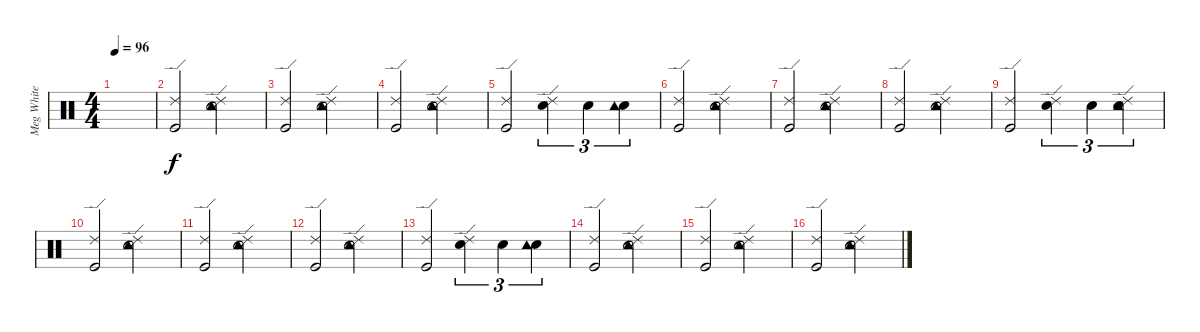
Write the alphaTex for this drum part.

\track ("Meg White" "Meg White") {instrument percussion}
\staff {score}
\articulation defaults
\ts (4 4)
\tempo 96
\clef neutral
\ks c
|
("Kick (hit)" "Ride (edge) 2").2 ("Electric Snare (hit)" "Tambourine (hit)" "Ride (edge) 2").2 |
("Kick (hit)" "Ride (edge) 2").2 ("Electric Snare (hit)" "Tambourine (hit)" "Ride (edge) 2").2 |
("Kick (hit)" "Ride (edge) 2").2 ("Electric Snare (hit)" "Tambourine (hit)" "Ride (edge) 2").2 |
("Kick (hit)" "Ride (edge) 2").2 ("Electric Snare (hit)" "Ride (edge) 2").4{tu (3 2)} "Electric Snare (hit)".4{tu (3 2)} ("Electric Snare (hit)" "Tambourine (hit)").4{tu (3 2)} |
("Kick (hit)" "Ride (edge) 2").2 ("Electric Snare (hit)" "Tambourine (hit)" "Ride (edge) 2").2 |
("Kick (hit)" "Ride (edge) 2").2 ("Electric Snare (hit)" "Tambourine (hit)" "Ride (edge) 2").2 |
("Kick (hit)" "Ride (edge) 2").2 ("Electric Snare (hit)" "Tambourine (hit)" "Ride (edge) 2").2 |
("Kick (hit)" "Ride (edge) 2").2 ("Electric Snare (hit)" "Ride (edge) 2").4{tu (3 2)} "Electric Snare (hit)".4{tu (3 2)} ("Electric Snare (hit)" "Tambourine (hit)" "Ride (edge) 2").4{tu (3 2)} |
("Kick (hit)" "Ride (edge) 2").2 ("Electric Snare (hit)" "Tambourine (hit)" "Ride (edge) 2").2 |
("Kick (hit)" "Ride (edge) 2").2 ("Electric Snare (hit)" "Tambourine (hit)" "Ride (edge) 2").2 |
("Kick (hit)" "Ride (edge) 2").2 ("Electric Snare (hit)" "Tambourine (hit)" "Ride (edge) 2").2 |
("Kick (hit)" "Ride (edge) 2").2 ("Electric Snare (hit)" "Ride (edge) 2").4{tu (3 2)} "Electric Snare (hit)".4{tu (3 2)} ("Electric Snare (hit)" "Tambourine (hit)").4{tu (3 2)} |
("Kick (hit)" "Ride (edge) 2").2 ("Electric Snare (hit)" "Tambourine (hit)" "Ride (edge) 2").2 |
("Kick (hit)" "Ride (edge) 2").2 ("Electric Snare (hit)" "Tambourine (hit)" "Ride (edge) 2").2 |
("Kick (hit)" "Ride (edge) 2").2 ("Electric Snare (hit)" "Tambourine (hit)" "Ride (edge) 2").2
